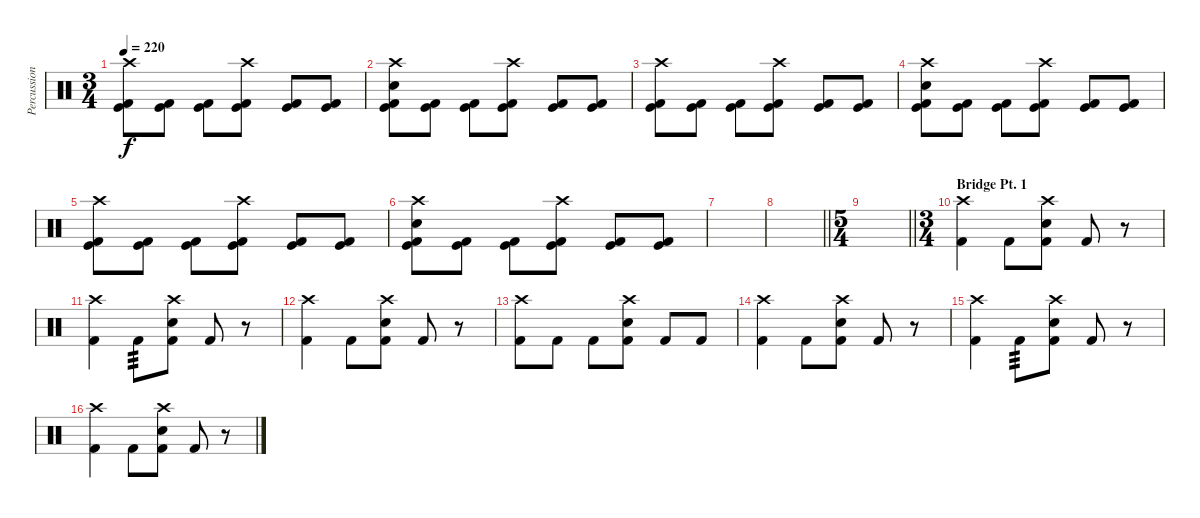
\track ("Percussion" "Percussion") {instrument percussion}
\staff {score}
\articulation defaults
\ts (3 4)
\tempo 220
\clef neutral
\ks c
("Crash high (hit)" "Kick (hit)" "Kick (hit) 2").8{dy f} ("Kick (hit)" "Kick (hit) 2").8 ("Kick (hit)" "Kick (hit) 2").8 ("Crash high (hit)" "Kick (hit)" "Kick (hit) 2").8 ("Kick (hit)" "Kick (hit) 2").8 ("Kick (hit)" "Kick (hit) 2").8 |
("Crash high (hit)" "Electric Snare (hit)" "Kick (hit)" "Kick (hit) 2").8 ("Kick (hit)" "Kick (hit) 2").8 ("Kick (hit)" "Kick (hit) 2").8 ("Crash high (hit)" "Kick (hit)" "Kick (hit) 2").8 ("Kick (hit)" "Kick (hit) 2").8 ("Kick (hit)" "Kick (hit) 2").8 |
("Crash high (hit)" "Kick (hit)" "Kick (hit) 2").8 ("Kick (hit)" "Kick (hit) 2").8 ("Kick (hit)" "Kick (hit) 2").8 ("Crash high (hit)" "Kick (hit)" "Kick (hit) 2").8 ("Kick (hit)" "Kick (hit) 2").8 ("Kick (hit)" "Kick (hit) 2").8 |
("Crash high (hit)" "Electric Snare (hit)" "Kick (hit)" "Kick (hit) 2").8 ("Kick (hit)" "Kick (hit) 2").8 ("Kick (hit)" "Kick (hit) 2").8 ("Crash high (hit)" "Kick (hit)" "Kick (hit) 2").8 ("Kick (hit)" "Kick (hit) 2").8 ("Kick (hit)" "Kick (hit) 2").8 |
("Crash high (hit)" "Kick (hit)" "Kick (hit) 2").8 ("Kick (hit)" "Kick (hit) 2").8 ("Kick (hit)" "Kick (hit) 2").8 ("Crash high (hit)" "Kick (hit)" "Kick (hit) 2").8 ("Kick (hit)" "Kick (hit) 2").8 ("Kick (hit)" "Kick (hit) 2").8 |
("Crash high (hit)" "Electric Snare (hit)" "Kick (hit)" "Kick (hit) 2").8 ("Kick (hit)" "Kick (hit) 2").8 ("Kick (hit)" "Kick (hit) 2").8 ("Crash high (hit)" "Kick (hit)" "Kick (hit) 2").8 ("Kick (hit)" "Kick (hit) 2").8 ("Kick (hit)" "Kick (hit) 2").8 |
|
\barLineRight lightlight
|
\ts (5 4)
\barLineRight lightlight
|
\ts (3 4)
\section ("" "Bridge Pt. 1")
("Crash high (hit)" "Kick (hit) 2").4 "Kick (hit) 2".8 ("Crash high (hit)" "Electric Snare (hit)" "Kick (hit) 2").8 "Kick (hit) 2".8 r.8 |
("Crash high (hit)" "Kick (hit) 2").4 "Kick (hit) 2".8{tp 3} ("Crash high (hit)" "Electric Snare (hit)" "Kick (hit) 2").8 "Kick (hit) 2".8 r.8 |
("Crash high (hit)" "Kick (hit) 2").4 "Kick (hit) 2".8 ("Crash high (hit)" "Electric Snare (hit)" "Kick (hit) 2").8 "Kick (hit) 2".8 r.8 |
("Crash high (hit)" "Kick (hit) 2").8 "Kick (hit) 2".8 "Kick (hit) 2".8 ("Crash high (hit)" "Electric Snare (hit)" "Kick (hit) 2").8 "Kick (hit) 2".8 "Kick (hit) 2".8 |
("Crash high (hit)" "Kick (hit) 2").4 "Kick (hit) 2".8 ("Crash high (hit)" "Electric Snare (hit)" "Kick (hit) 2").8 "Kick (hit) 2".8 r.8 |
("Crash high (hit)" "Kick (hit) 2").4 "Kick (hit) 2".8{tp 3} ("Crash high (hit)" "Electric Snare (hit)" "Kick (hit) 2").8 "Kick (hit) 2".8 r.8 |
("Crash high (hit)" "Kick (hit) 2").4 "Kick (hit) 2".8 ("Crash high (hit)" "Electric Snare (hit)" "Kick (hit) 2").8 "Kick (hit) 2".8 r.8
